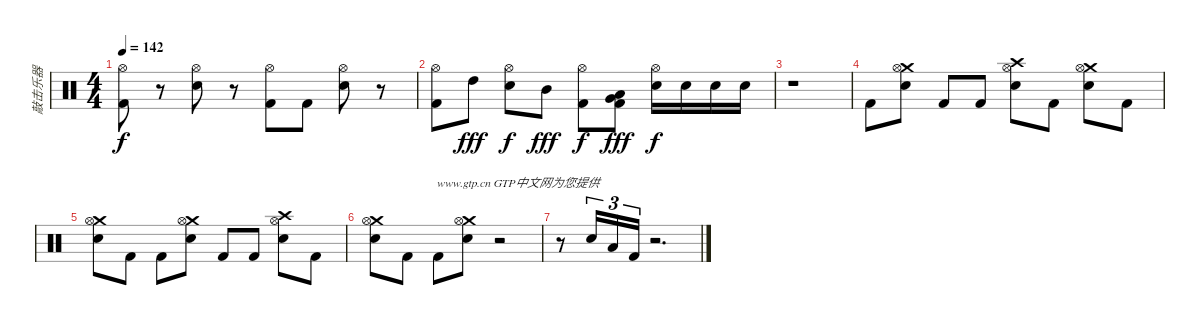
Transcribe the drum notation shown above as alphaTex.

\track ("敲击乐器" "敲击乐器") {instrument percussion}
\staff {score}
\articulation defaults
\ts (4 4)
\tempo 142
\clef neutral
\ks c
("Hi-Hat (open)" "Kick (hit) 2").8{dy f} r.8 ("Snare (hit) 2" "Hi-Hat (open)").8 r.8 ("Hi-Hat (open)" "Kick (hit) 2").8 "Kick (hit) 2".8 ("Snare (hit) 2" "Hi-Hat (open)").8 r.8 |
("Hi-Hat (open)" "Kick (hit) 2").8 "High Tom (hit)".8{dy fff} ("Snare (hit) 2" "Hi-Hat (open)").8{dy f} "Mid Tom (hit)".8{dy fff} ("Hi-Hat (open)" "Kick (hit) 2").8{dy f} ("Very Low Tom (hit)" "Low Floor Tom (hit)" "Kick (hit) 2").8{dy fff} ("Snare (hit) 2" "Hi-Hat (open)").16{dy f} "Snare (hit) 2".16 "Snare (hit) 2".16 "Snare (hit) 2".16 |
r.1 |
"Kick (hit) 2".8 ("Snare (hit) 2" "Crash medium (hit)" "Hi-Hat (open)").8 "Kick (hit) 2".8 "Kick (hit) 2".8 ("Snare (hit) 2" "Crash high (hit)" "Hi-Hat (open)").8 "Kick (hit) 2".8 ("Snare (hit) 2" "Crash medium (hit)" "Hi-Hat (open)").8 "Kick (hit) 2".8 |
("Snare (hit) 2" "Crash medium (hit)" "Hi-Hat (open)").8 "Kick (hit) 2".8 "Kick (hit) 2".8 ("Snare (hit) 2" "Crash medium (hit)" "Hi-Hat (open)").8 "Kick (hit) 2".8 "Kick (hit) 2".8 ("Snare (hit) 2" "Crash high (hit)" "Hi-Hat (open)").8 "Kick (hit) 2".8 |
("Snare (hit) 2" "Crash medium (hit)" "Hi-Hat (open)").8{txt "                    www.gtp.cn GTP中文网为您提供"} "Kick (hit) 2".8 "Kick (hit) 2".8 ("Snare (hit) 2" "Crash medium (hit)" "Hi-Hat (open)").8 r.2 |
r.8 "Snare (hit) 2".16{tu (3 2)} "Low Floor Tom (hit)".16{tu (3 2)} "Kick (hit) 2".16{tu (3 2)} r.2{d}
